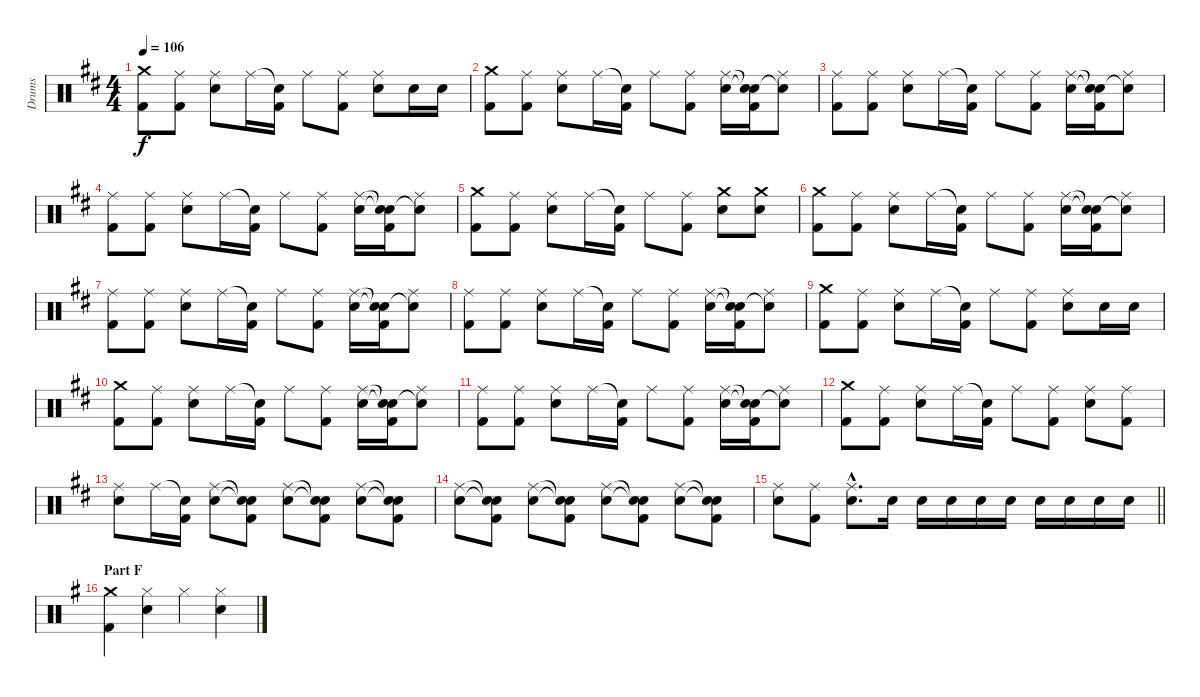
\track ("Drums" "Drums") {instrument percussion}
\staff {score}
\articulation defaults
\ts (4 4)
\tempo 106
\clef neutral
\ks d
("Crash medium (hit)" "Kick (hit) 2").8{dy f} ("Ride (middle)" "Kick (hit) 2").8 ("Ride (middle)" "Electric Snare (hit)").8 "Ride (middle)".16 ("Snare (hit)"{t} "Kick (hit) 2").16 "Ride (middle)".8 ("Ride (middle)" "Kick (hit) 2").8 ("Ride (middle)" "Electric Snare (hit)").8 "Electric Snare (hit)".16 "Electric Snare (hit)".16 |
("Crash medium (hit)" "Kick (hit) 2").8 ("Ride (middle)" "Kick (hit) 2").8 ("Ride (middle)" "Electric Snare (hit)").8 "Ride (middle)".16 ("Snare (hit)"{t} "Kick (hit) 2").16 "Ride (middle)".8 ("Ride (middle)" "Kick (hit) 2").8 ("Ride (middle)" "Electric Snare (hit)").16 ("Snare (hit)"{t} "Snare (hit)"{t} "Kick (hit) 2").16 ("Ride (middle)" "Snare (hit)"{t}).8 |
("Ride (middle)" "Kick (hit) 2").8 ("Ride (middle)" "Kick (hit) 2").8 ("Ride (middle)" "Electric Snare (hit)").8 "Ride (middle)".16 ("Snare (hit)"{t} "Kick (hit) 2").16 "Ride (middle)".8 ("Ride (middle)" "Kick (hit) 2").8 ("Ride (middle)" "Electric Snare (hit)").16 ("Snare (hit)"{t} "Snare (hit)"{t} "Kick (hit) 2").16 ("Ride (middle)" "Snare (hit)"{t}).8 |
("Ride (middle)" "Kick (hit) 2").8 ("Ride (middle)" "Kick (hit) 2").8 ("Ride (middle)" "Electric Snare (hit)").8 "Ride (middle)".16 ("Snare (hit)"{t} "Kick (hit) 2").16 "Ride (middle)".8 ("Ride (middle)" "Kick (hit) 2").8 ("Ride (middle)" "Electric Snare (hit)").16 ("Snare (hit)"{t} "Snare (hit)"{t} "Kick (hit) 2").16 ("Ride (middle)" "Snare (hit)"{t}).8 |
("Crash medium (hit)" "Kick (hit) 2").8 ("Ride (middle)" "Kick (hit) 2").8 ("Ride (middle)" "Electric Snare (hit)").8 "Ride (middle)".16 ("Snare (hit)"{t} "Kick (hit) 2").16 "Ride (middle)".8 ("Ride (middle)" "Kick (hit) 2").8 ("Crash medium (hit)" "Electric Snare (hit)").8 ("Crash medium (hit)" "Electric Snare (hit)").8 |
("Crash medium (hit)" "Kick (hit) 2").8 ("Ride (middle)" "Kick (hit) 2").8 ("Ride (middle)" "Electric Snare (hit)").8 "Ride (middle)".16 ("Snare (hit)"{t} "Kick (hit) 2").16 "Ride (middle)".8 ("Ride (middle)" "Kick (hit) 2").8 ("Ride (middle)" "Electric Snare (hit)").16 ("Snare (hit)"{t} "Snare (hit)"{t} "Kick (hit) 2").16 ("Ride (middle)" "Snare (hit)"{t}).8 |
("Ride (middle)" "Kick (hit) 2").8 ("Ride (middle)" "Kick (hit) 2").8 ("Ride (middle)" "Electric Snare (hit)").8 "Ride (middle)".16 ("Snare (hit)"{t} "Kick (hit) 2").16 "Ride (middle)".8 ("Ride (middle)" "Kick (hit) 2").8 ("Ride (middle)" "Electric Snare (hit)").16 ("Snare (hit)"{t} "Snare (hit)"{t} "Kick (hit) 2").16 ("Ride (middle)" "Snare (hit)"{t}).8 |
("Ride (middle)" "Kick (hit) 2").8 ("Ride (middle)" "Kick (hit) 2").8 ("Ride (middle)" "Electric Snare (hit)").8 "Ride (middle)".16 ("Snare (hit)"{t} "Kick (hit) 2").16 "Ride (middle)".8 ("Ride (middle)" "Kick (hit) 2").8 ("Ride (middle)" "Electric Snare (hit)").16 ("Snare (hit)"{t} "Snare (hit)"{t} "Kick (hit) 2").16 ("Ride (middle)" "Snare (hit)"{t}).8 |
("Crash medium (hit)" "Kick (hit) 2").8 ("Ride (middle)" "Kick (hit) 2").8 ("Ride (middle)" "Electric Snare (hit)").8 "Ride (middle)".16 ("Snare (hit)"{t} "Kick (hit) 2").16 "Ride (middle)".8 ("Ride (middle)" "Kick (hit) 2").8 ("Ride (middle)" "Electric Snare (hit)").8 "Electric Snare (hit)".16 "Electric Snare (hit)".16 |
("Crash medium (hit)" "Kick (hit) 2").8 ("Ride (middle)" "Kick (hit) 2").8 ("Ride (middle)" "Electric Snare (hit)").8 "Ride (middle)".16 ("Snare (hit)"{t} "Kick (hit) 2").16 "Ride (middle)".8 ("Ride (middle)" "Kick (hit) 2").8 ("Ride (middle)" "Electric Snare (hit)").16 ("Snare (hit)"{t} "Snare (hit)"{t} "Kick (hit) 2").16 ("Ride (middle)" "Snare (hit)"{t}).8 |
("Ride (middle)" "Kick (hit) 2").8 ("Ride (middle)" "Kick (hit) 2").8 ("Ride (middle)" "Electric Snare (hit)").8 "Ride (middle)".16 ("Snare (hit)"{t} "Kick (hit) 2").16 "Ride (middle)".8 ("Ride (middle)" "Kick (hit) 2").8 ("Ride (middle)" "Electric Snare (hit)").16 ("Snare (hit)"{t} "Snare (hit)"{t} "Kick (hit) 2").16 ("Ride (middle)" "Snare (hit)"{t}).8 |
("Crash medium (hit)" "Kick (hit) 2").8 ("Ride (middle)" "Kick (hit) 2").8 ("Ride (middle)" "Electric Snare (hit)").8 "Ride (middle)".16 ("Snare (hit)"{t} "Kick (hit) 2").16 "Ride (middle)".8 ("Ride (middle)" "Kick (hit) 2").8 ("Ride (middle)" "Electric Snare (hit)").8 ("Ride (middle)" "Kick (hit) 2").8 |
("Ride (middle)" "Electric Snare (hit)").8 "Ride (middle)".16 ("Snare (hit)"{t} "Kick (hit) 2").16 ("Ride (middle)" "Electric Snare (hit)").8 ("Snare (hit)"{t} "Snare (hit)"{t} "Kick (hit) 2").8 ("Ride (middle)" "Electric Snare (hit)").8 ("Snare (hit)"{t} "Snare (hit)"{t} "Kick (hit) 2").8 ("Ride (middle)" "Electric Snare (hit)").8 ("Snare (hit)"{t} "Snare (hit)"{t} "Kick (hit) 2").8 |
("Ride (middle)" "Electric Snare (hit)").8 ("Snare (hit)"{t} "Snare (hit)"{t} "Kick (hit) 2").8 ("Ride (middle)" "Electric Snare (hit)").8 ("Snare (hit)"{t} "Snare (hit)"{t} "Kick (hit) 2").8 ("Ride (middle)" "Electric Snare (hit)").8 ("Snare (hit)"{t} "Snare (hit)"{t} "Kick (hit) 2").8 ("Ride (middle)" "Electric Snare (hit)").8 ("Snare (hit)"{t} "Snare (hit)"{t} "Kick (hit) 2").8 |
\barLineRight lightlight
("Ride (middle)" "Electric Snare (hit)").8 ("Ride (middle)" "Kick (hit) 2").8 ("Ride (middle)"{hac} "Electric Snare (hit)"{hac}).8{d} "Electric Snare (hit)".16 "Electric Snare (hit)".16 "Electric Snare (hit)".16 "Electric Snare (hit)".16 "Electric Snare (hit)".16 "Electric Snare (hit)".16 "Electric Snare (hit)".16 "Electric Snare (hit)".16 "Electric Snare (hit)".16 |
\section ("" "Part F")
\ks g
("Crash medium (hit)" "Kick (hit) 2").4 ("Hi-Hat (closed)" "Electric Snare (hit)").4 "Hi-Hat (closed)".4 ("Hi-Hat (closed)" "Electric Snare (hit)").4
